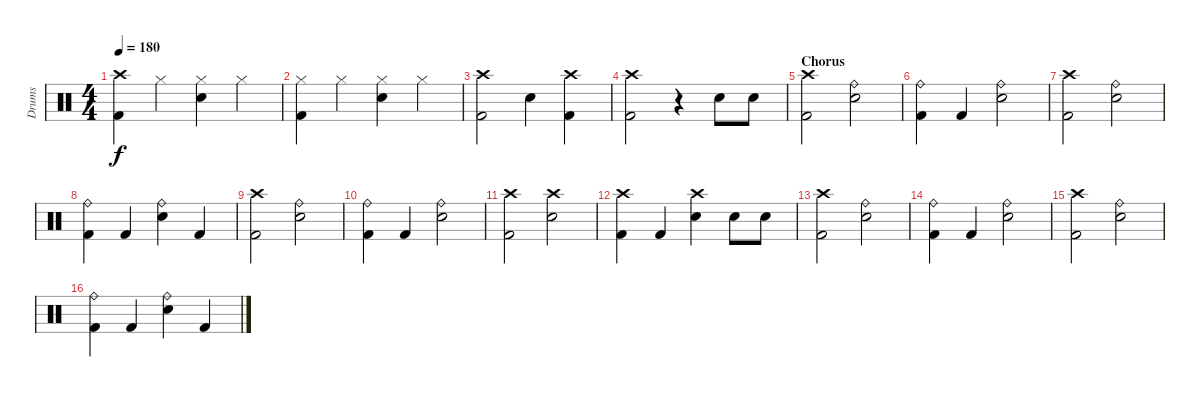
\track ("Drums" "Drums") {instrument percussion}
\staff {score}
\articulation defaults
\ts (4 4)
\tempo 180
\clef neutral
\ks c
("Crash high (hit)" "Kick (hit) 2").4{dy f} "Hi-Hat (closed)".4 ("Hi-Hat (closed)" "Snare (hit) 2").4 "Hi-Hat (closed)".4 |
("Hi-Hat (closed)" "Kick (hit) 2").4 "Hi-Hat (closed)".4 ("Hi-Hat (closed)" "Snare (hit) 2").4 "Hi-Hat (closed)".4 |
("Crash high (hit)" "Kick (hit) 2").2 "Snare (hit) 2".4 ("Crash high (hit)" "Kick (hit) 2").4 |
("Crash high (hit)" "Kick (hit) 2").2 r.4 "Snare (hit) 2".8 "Snare (hit) 2".8 |
\section ("" "Chorus")
("Crash high (hit)" "Kick (hit) 2").2 ("Ride (bell)" "Snare (hit) 2").2 |
("Ride (bell)" "Kick (hit) 2").4 "Kick (hit) 2".4 ("Ride (bell)" "Snare (hit) 2").2 |
("Crash high (hit)" "Kick (hit) 2").2 ("Ride (bell)" "Snare (hit) 2").2 |
("Ride (bell)" "Kick (hit) 2").4 "Kick (hit) 2".4 ("Ride (bell)" "Snare (hit) 2").4 "Kick (hit) 2".4 |
("Crash high (hit)" "Kick (hit) 2").2 ("Ride (bell)" "Snare (hit) 2").2 |
("Ride (bell)" "Kick (hit) 2").4 "Kick (hit) 2".4 ("Ride (bell)" "Snare (hit) 2").2 |
("Crash high (hit)" "Kick (hit) 2").2 ("Crash high (hit)" "Snare (hit) 2").2 |
("Crash high (hit)" "Kick (hit) 2").4 "Kick (hit) 2".4 ("Crash high (hit)" "Snare (hit) 2").4 "Snare (hit) 2".8 "Snare (hit) 2".8 |
("Crash high (hit)" "Kick (hit) 2").2 ("Ride (bell)" "Snare (hit) 2").2 |
("Ride (bell)" "Kick (hit) 2").4 "Kick (hit) 2".4 ("Ride (bell)" "Snare (hit) 2").2 |
("Crash high (hit)" "Kick (hit) 2").2 ("Ride (bell)" "Snare (hit) 2").2 |
("Ride (bell)" "Kick (hit) 2").4 "Kick (hit) 2".4 ("Ride (bell)" "Snare (hit) 2").4 "Kick (hit) 2".4
